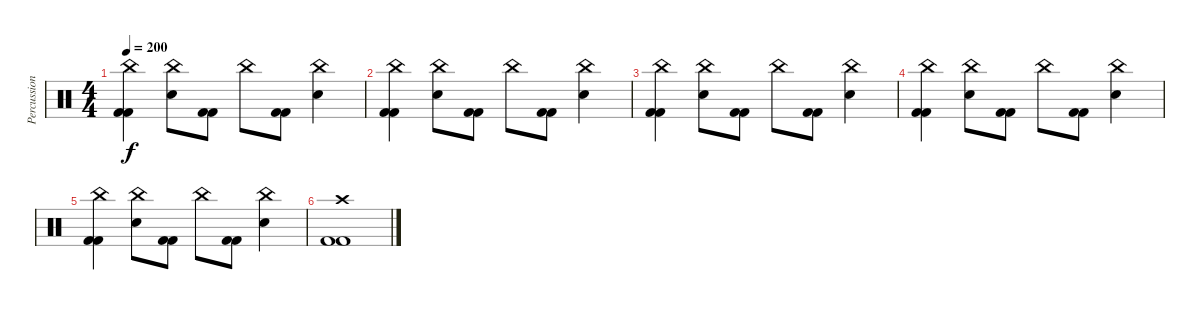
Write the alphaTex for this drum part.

\track ("Percussion" "Percussion") {instrument percussion}
\staff {score}
\articulation defaults
\ts (4 4)
\tempo 200
\clef neutral
\ks c
("China (hit)" "Kick (hit) 2" "Kick (hit) 2").4{dy f} ("China (hit)" "Snare (hit) 2").8 ("Kick (hit) 2" "Kick (hit) 2").8 "China (hit)".8 ("Kick (hit) 2" "Kick (hit) 2").8 ("China (hit)" "Snare (hit) 2").4 |
("China (hit)" "Kick (hit) 2" "Kick (hit) 2").4 ("China (hit)" "Snare (hit) 2").8 ("Kick (hit) 2" "Kick (hit) 2").8 "China (hit)".8 ("Kick (hit) 2" "Kick (hit) 2").8 ("China (hit)" "Snare (hit) 2").4 |
("China (hit)" "Kick (hit) 2" "Kick (hit) 2").4 ("China (hit)" "Snare (hit) 2").8 ("Kick (hit) 2" "Kick (hit) 2").8 "China (hit)".8 ("Kick (hit) 2" "Kick (hit) 2").8 ("China (hit)" "Snare (hit) 2").4 |
("China (hit)" "Kick (hit) 2" "Kick (hit) 2").4 ("China (hit)" "Snare (hit) 2").8 ("Kick (hit) 2" "Kick (hit) 2").8 "China (hit)".8 ("Kick (hit) 2" "Kick (hit) 2").8 ("China (hit)" "Snare (hit) 2").4 |
("China (hit)" "Kick (hit) 2" "Kick (hit) 2").4 ("China (hit)" "Snare (hit) 2").8 ("Kick (hit) 2" "Kick (hit) 2").8 "China (hit)".8 ("Kick (hit) 2" "Kick (hit) 2").8 ("China (hit)" "Snare (hit) 2").4 |
("Crash high (hit)" "Kick (hit) 2" "Kick (hit) 2").1
